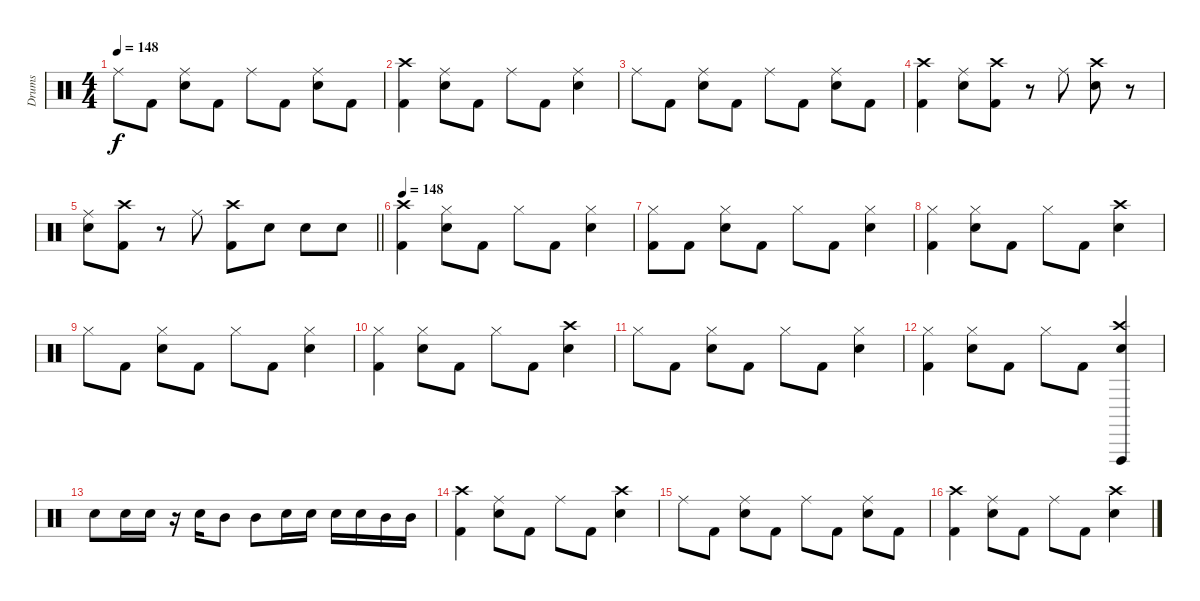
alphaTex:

\track ("Drums" "Drums") {instrument percussion}
\staff {score}
\articulation defaults
\ts (4 4)
\tempo 148
\clef neutral
\ks c "Ride (middle)".8{dy f} "Kick (hit) 2".8
("Ride (middle)" "Snare (hit) 2").8 "Kick (hit) 2".8 "Ride (middle)".8 "Kick (hit) 2".8 ("Ride (middle)" "Snare (hit) 2").8 "Kick (hit) 2".8 |
("Crash high (hit)" "Kick (hit) 2").4 ("Ride (middle)" "Snare (hit) 2").8 "Kick (hit) 2".8 "Ride (middle)".8 "Kick (hit) 2".8 ("Ride (middle)" "Snare (hit) 2").4 |
"Ride (middle)".8 "Kick (hit) 2".8 ("Ride (middle)" "Snare (hit) 2").8 "Kick (hit) 2".8 "Ride (middle)".8 "Kick (hit) 2".8 ("Ride (middle)" "Snare (hit) 2").8 "Kick (hit) 2".8 |
("Crash high (hit)" "Kick (hit) 2").4 ("Ride (middle)" "Snare (hit) 2").8 ("Crash high (hit)" "Kick (hit) 2").8 r.8 "Ride (middle)".8 ("Crash high (hit)" "Snare (hit) 2").8 r.8 |
\barLineRight lightlight
("Ride (middle)" "Snare (hit) 2").8 ("Crash high (hit)" "Kick (hit) 2").8 r.8 "Ride (middle)".8 ("Crash high (hit)" "Kick (hit) 2").8 "Snare (hit) 2".8 "Snare (hit) 2".8 "Snare (hit) 2".8 |
\tempo 148
("Crash high (hit)" "Kick (hit) 2").4 ("Hi-Hat (closed)" "Snare (hit) 2").8 "Kick (hit) 2".8 "Hi-Hat (closed)".8 "Kick (hit) 2".8 ("Hi-Hat (closed)" "Snare (hit) 2").4 |
("Hi-Hat (closed)" "Kick (hit) 2").8 "Kick (hit) 2".8 ("Hi-Hat (closed)" "Snare (hit) 2").8 "Kick (hit) 2".8 "Hi-Hat (closed)".8 "Kick (hit) 2".8 ("Hi-Hat (closed)" "Snare (hit) 2").4 |
("Hi-Hat (closed)" "Kick (hit) 2").4 ("Hi-Hat (closed)" "Snare (hit) 2").8 "Kick (hit) 2".8 "Hi-Hat (closed)".8 "Kick (hit) 2".8 ("Crash high (hit)" "Snare (hit) 2").4 |
"Hi-Hat (closed)".8 "Kick (hit) 2".8 ("Hi-Hat (closed)" "Snare (hit) 2").8 "Kick (hit) 2".8 "Hi-Hat (closed)".8 "Kick (hit) 2".8 ("Hi-Hat (closed)" "Snare (hit) 2").4 |
("Hi-Hat (closed)" "Kick (hit) 2").4 ("Hi-Hat (closed)" "Snare (hit) 2").8 "Kick (hit) 2".8 "Hi-Hat (closed)".8 "Kick (hit) 2".8 ("Crash high (hit)" "Snare (hit) 2").4 |
"Hi-Hat (closed)".8 "Kick (hit) 2".8 ("Hi-Hat (closed)" "Snare (hit) 2").8 "Kick (hit) 2".8 "Hi-Hat (closed)".8 "Kick (hit) 2".8 ("Hi-Hat (closed)" "Snare (hit) 2").4 |
("Hi-Hat (closed)" "Kick (hit) 2").4 ("Hi-Hat (closed)" "Snare (hit) 2").8 "Kick (hit) 2".8 "Hi-Hat (closed)".8 "Kick (hit) 2".8 ("Crash high (hit)" "Vibraslap (hit)" "Snare (hit) 2").4 |
"Snare (hit) 2".8 "Snare (hit) 2".16 "Snare (hit) 2".16 r.16 "Snare (hit) 2".16 "Mid Tom (hit)".8 "Mid Tom (hit)".8 "Snare (hit) 2".16 "Snare (hit) 2".16 "Snare (hit) 2".16 "Snare (hit) 2".16 "Mid Tom (hit)".16 "Mid Tom (hit)".16 |
("Crash high (hit)" "Kick (hit) 2").4 ("Ride (middle)" "Snare (hit) 2").8 "Kick (hit) 2".8 "Ride (middle)".8 "Kick (hit) 2".8 ("Crash high (hit)" "Snare (hit) 2").4 |
"Ride (middle)".8 "Kick (hit) 2".8 ("Ride (middle)" "Snare (hit) 2").8 "Kick (hit) 2".8 "Ride (middle)".8 "Kick (hit) 2".8 ("Ride (middle)" "Snare (hit) 2").8 "Kick (hit) 2".8 |
("Crash high (hit)" "Kick (hit) 2").4 ("Ride (middle)" "Snare (hit) 2").8 "Kick (hit) 2".8 "Ride (middle)".8 "Kick (hit) 2".8 ("Crash high (hit)" "Snare (hit) 2").4
